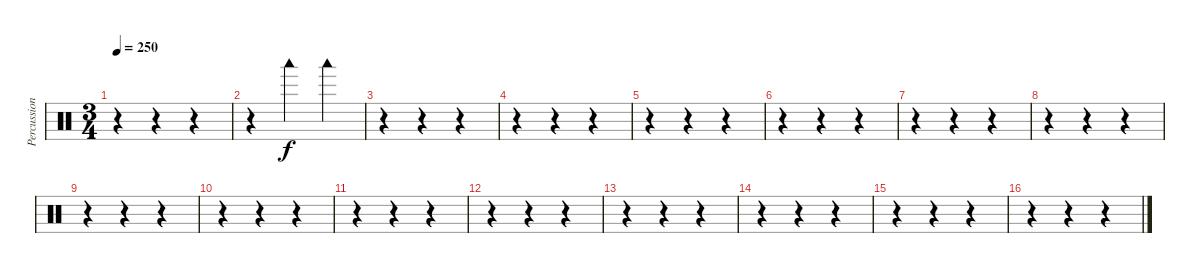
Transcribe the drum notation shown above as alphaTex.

\track ("Percussions" "Percussion") {instrument percussion}
\staff {score}
\articulation defaults
\ts (3 4)
\tempo 250
\clef neutral
\ks c
r.4{dy f} r.4 r.4 |
r.4 "Woodblock low (hit)".4 "Woodblock low (hit)".4 |
r.4 r.4 r.4 |
r.4 r.4 r.4 |
r.4 r.4 r.4 |
r.4 r.4 r.4 |
r.4 r.4 r.4 |
r.4 r.4 r.4 |
r.4 r.4 r.4 |
r.4 r.4 r.4 |
r.4 r.4 r.4 |
r.4 r.4 r.4 |
r.4 r.4 r.4 |
r.4 r.4 r.4 |
r.4 r.4 r.4 |
r.4 r.4 r.4
